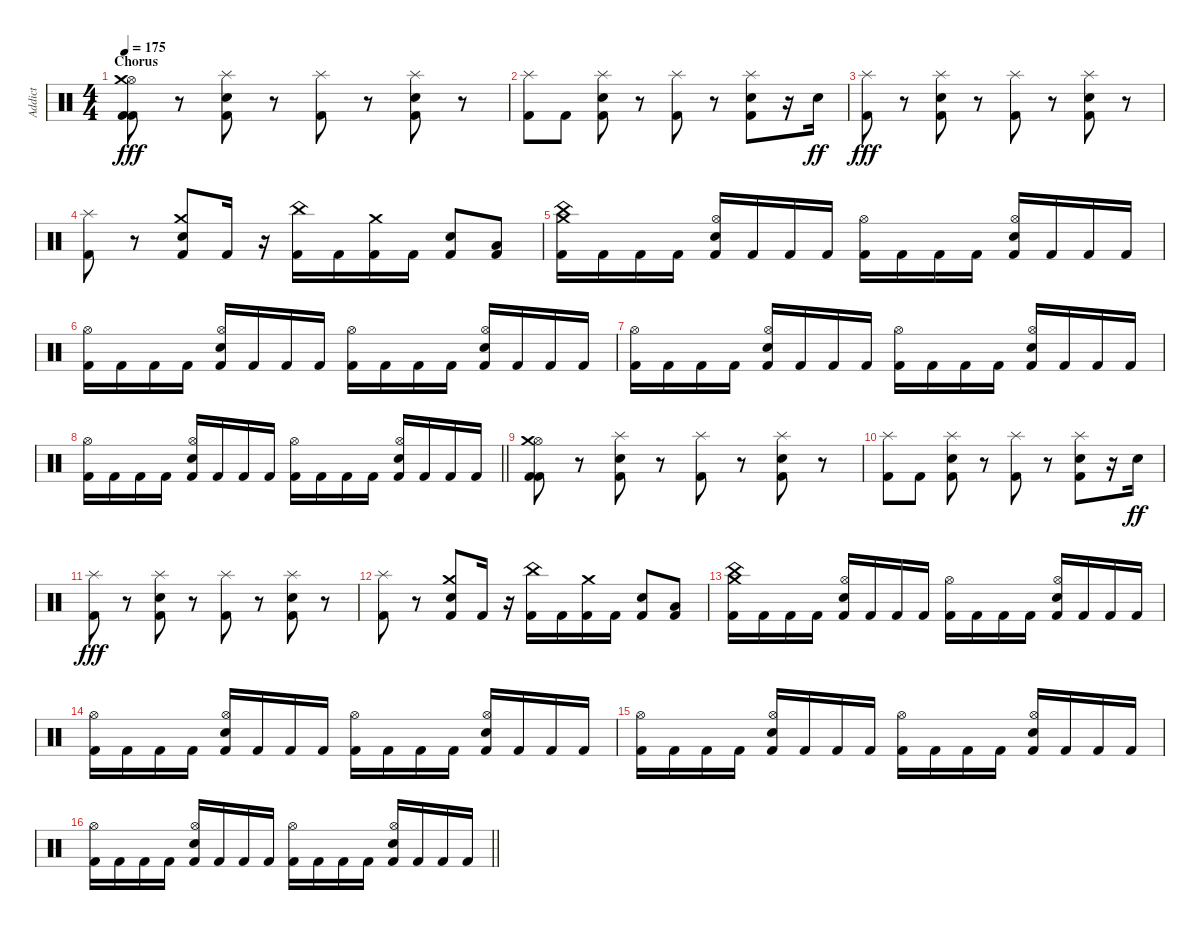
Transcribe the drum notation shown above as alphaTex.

\track ("Addict" "Addict") {instrument percussion}
\staff {score}
\articulation defaults
\ts (4 4)
\section ("" "Chorus")
\tempo 175
\clef neutral
\ks c
("Kick (hit) 2" "Hi-Hat (open)" "Kick (hit) 2" "Crash medium (hit)").8{dy fff} r.8 ("Kick (hit) 2" "Snare (hit) 2" "Splash (hit)").8 r.8 ("Kick (hit) 2" "Splash (hit)").8 r.8 ("Kick (hit) 2" "Snare (hit) 2" "Splash (hit)").8 r.8 |
("Kick (hit) 2" "Splash (hit)").8 "Kick (hit) 2".8 ("Kick (hit) 2" "Snare (hit) 2" "Splash (hit)").8 r.8 ("Kick (hit) 2" "Splash (hit)").8 r.8 ("Kick (hit) 2" "Snare (hit) 2" "Splash (hit)").8 r.16 "Snare (hit) 2".16{dy ff} |
("Kick (hit) 2" "Splash (hit)").8{dy fff} r.8 ("Kick (hit) 2" "Snare (hit) 2" "Splash (hit)").8 r.8 ("Kick (hit) 2" "Splash (hit)").8 r.8 ("Kick (hit) 2" "Snare (hit) 2" "Splash (hit)").8 r.8 |
("Kick (hit) 2" "Splash (hit)").8 r.8 ("Kick (hit) 2" "Snare (hit) 2" "Crash medium (hit)").8 "Kick (hit) 2".16 r.16 ("Kick (hit) 2" "China (hit)").16 "Kick (hit) 2".16 ("Kick (hit) 2" "Crash medium (hit)").16 "Kick (hit) 2".16 ("Kick (hit) 2" "Snare (hit) 2").8 ("Kick (hit) 2" "Low Tom (hit)").8 |
("Kick (hit) 2" "Crash medium (hit)" "China (hit)").16 "Kick (hit) 2".16 "Kick (hit) 2".16 "Kick (hit) 2".16 ("Kick (hit) 2" "Snare (hit) 2" "Hi-Hat (open)").16 "Kick (hit) 2".16 "Kick (hit) 2".16 "Kick (hit) 2".16 ("Kick (hit) 2" "Hi-Hat (open)").16 "Kick (hit) 2".16 "Kick (hit) 2".16 "Kick (hit) 2".16 ("Kick (hit) 2" "Snare (hit) 2" "Hi-Hat (open)").16 "Kick (hit) 2".16 "Kick (hit) 2".16 "Kick (hit) 2".16 |
("Kick (hit) 2" "Hi-Hat (open)").16 "Kick (hit) 2".16 "Kick (hit) 2".16 "Kick (hit) 2".16 ("Kick (hit) 2" "Snare (hit) 2" "Hi-Hat (open)").16 "Kick (hit) 2".16 "Kick (hit) 2".16 "Kick (hit) 2".16 ("Kick (hit) 2" "Hi-Hat (open)").16 "Kick (hit) 2".16 "Kick (hit) 2".16 "Kick (hit) 2".16 ("Kick (hit) 2" "Snare (hit) 2" "Hi-Hat (open)").16 "Kick (hit) 2".16 "Kick (hit) 2".16 "Kick (hit) 2".16 |
("Kick (hit) 2" "Hi-Hat (open)").16 "Kick (hit) 2".16 "Kick (hit) 2".16 "Kick (hit) 2".16 ("Kick (hit) 2" "Snare (hit) 2" "Hi-Hat (open)").16 "Kick (hit) 2".16 "Kick (hit) 2".16 "Kick (hit) 2".16 ("Kick (hit) 2" "Hi-Hat (open)").16 "Kick (hit) 2".16 "Kick (hit) 2".16 "Kick (hit) 2".16 ("Kick (hit) 2" "Snare (hit) 2" "Hi-Hat (open)").16 "Kick (hit) 2".16 "Kick (hit) 2".16 "Kick (hit) 2".16 |
\barLineRight lightlight
("Kick (hit) 2" "Hi-Hat (open)").16 "Kick (hit) 2".16 "Kick (hit) 2".16 "Kick (hit) 2".16 ("Kick (hit) 2" "Snare (hit) 2" "Hi-Hat (open)").16 "Kick (hit) 2".16 "Kick (hit) 2".16 "Kick (hit) 2".16 ("Kick (hit) 2" "Hi-Hat (open)").16 "Kick (hit) 2".16 "Kick (hit) 2".16 "Kick (hit) 2".16 ("Kick (hit) 2" "Snare (hit) 2" "Hi-Hat (open)").16 "Kick (hit) 2".16 "Kick (hit) 2".16 "Kick (hit) 2".16 |
("Kick (hit) 2" "Hi-Hat (open)" "Kick (hit) 2" "Crash medium (hit)").8 r.8 ("Kick (hit) 2" "Snare (hit) 2" "Splash (hit)").8 r.8 ("Kick (hit) 2" "Splash (hit)").8 r.8 ("Kick (hit) 2" "Snare (hit) 2" "Splash (hit)").8 r.8 |
("Kick (hit) 2" "Splash (hit)").8 "Kick (hit) 2".8 ("Kick (hit) 2" "Snare (hit) 2" "Splash (hit)").8 r.8 ("Kick (hit) 2" "Splash (hit)").8 r.8 ("Kick (hit) 2" "Snare (hit) 2" "Splash (hit)").8 r.16 "Snare (hit) 2".16{dy ff} |
("Kick (hit) 2" "Splash (hit)").8{dy fff} r.8 ("Kick (hit) 2" "Snare (hit) 2" "Splash (hit)").8 r.8 ("Kick (hit) 2" "Splash (hit)").8 r.8 ("Kick (hit) 2" "Snare (hit) 2" "Splash (hit)").8 r.8 |
("Kick (hit) 2" "Splash (hit)").8 r.8 ("Kick (hit) 2" "Snare (hit) 2" "Crash medium (hit)").8 "Kick (hit) 2".16 r.16 ("Kick (hit) 2" "China (hit)").16 "Kick (hit) 2".16 ("Kick (hit) 2" "Crash medium (hit)").16 "Kick (hit) 2".16 ("Kick (hit) 2" "Snare (hit) 2").8 ("Kick (hit) 2" "Low Tom (hit)").8 |
("Kick (hit) 2" "Crash medium (hit)" "China (hit)").16 "Kick (hit) 2".16 "Kick (hit) 2".16 "Kick (hit) 2".16 ("Kick (hit) 2" "Snare (hit) 2" "Hi-Hat (open)").16 "Kick (hit) 2".16 "Kick (hit) 2".16 "Kick (hit) 2".16 ("Kick (hit) 2" "Hi-Hat (open)").16 "Kick (hit) 2".16 "Kick (hit) 2".16 "Kick (hit) 2".16 ("Kick (hit) 2" "Snare (hit) 2" "Hi-Hat (open)").16 "Kick (hit) 2".16 "Kick (hit) 2".16 "Kick (hit) 2".16 |
("Kick (hit) 2" "Hi-Hat (open)").16 "Kick (hit) 2".16 "Kick (hit) 2".16 "Kick (hit) 2".16 ("Kick (hit) 2" "Snare (hit) 2" "Hi-Hat (open)").16 "Kick (hit) 2".16 "Kick (hit) 2".16 "Kick (hit) 2".16 ("Kick (hit) 2" "Hi-Hat (open)").16 "Kick (hit) 2".16 "Kick (hit) 2".16 "Kick (hit) 2".16 ("Kick (hit) 2" "Snare (hit) 2" "Hi-Hat (open)").16 "Kick (hit) 2".16 "Kick (hit) 2".16 "Kick (hit) 2".16 |
("Kick (hit) 2" "Hi-Hat (open)").16 "Kick (hit) 2".16 "Kick (hit) 2".16 "Kick (hit) 2".16 ("Kick (hit) 2" "Snare (hit) 2" "Hi-Hat (open)").16 "Kick (hit) 2".16 "Kick (hit) 2".16 "Kick (hit) 2".16 ("Kick (hit) 2" "Hi-Hat (open)").16 "Kick (hit) 2".16 "Kick (hit) 2".16 "Kick (hit) 2".16 ("Kick (hit) 2" "Snare (hit) 2" "Hi-Hat (open)").16 "Kick (hit) 2".16 "Kick (hit) 2".16 "Kick (hit) 2".16 |
\barLineRight lightlight
("Kick (hit) 2" "Hi-Hat (open)").16 "Kick (hit) 2".16 "Kick (hit) 2".16 "Kick (hit) 2".16 ("Kick (hit) 2" "Snare (hit) 2" "Hi-Hat (open)").16 "Kick (hit) 2".16 "Kick (hit) 2".16 "Kick (hit) 2".16 ("Kick (hit) 2" "Hi-Hat (open)").16 "Kick (hit) 2".16 "Kick (hit) 2".16 "Kick (hit) 2".16 ("Kick (hit) 2" "Snare (hit) 2" "Hi-Hat (open)").16 "Kick (hit) 2".16 "Kick (hit) 2".16 "Kick (hit) 2".16
